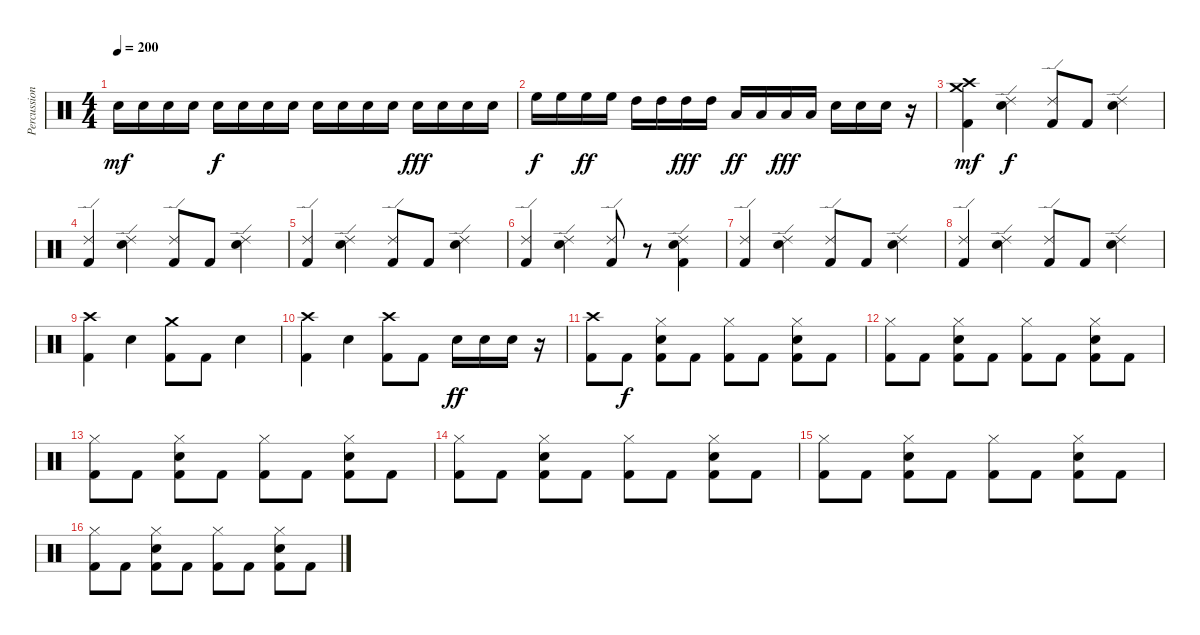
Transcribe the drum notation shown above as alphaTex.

\track ("Percussions 1" "Percussion") {instrument percussion}
\staff {score}
\articulation defaults
\ts (4 4)
\tempo 200
\clef neutral
\ks c "Snare (hit) 2".16{dy mf} "Snare (hit) 2".16 "Snare (hit) 2".16 "Snare (hit) 2".16 "Snare (hit) 2".16{dy f} "Snare (hit) 2".16 "Snare (hit) 2".16 "Snare (hit) 2".16 "Snare (hit) 2".16 "Snare (hit) 2".16 "Snare (hit) 2".16 "Snare (hit) 2".16 "Snare (hit) 2".16{dy fff} "Snare (hit) 2".16 "Snare (hit) 2".16 "Snare (hit) 2".16
|
"High Floor Tom (hit)".16{dy f} "High Floor Tom (hit)".16 "High Floor Tom (hit)".16{dy ff} "High Floor Tom (hit)".16 "High Tom (hit)".16 "High Tom (hit)".16 "High Tom (hit)".16{dy fff} "High Tom (hit)".16 "Low Tom (hit)".16{dy ff} "Low Tom (hit)".16 "Low Tom (hit)".16{dy fff} "Low Tom (hit)".16 "Snare (hit) 2".16 "Snare (hit) 2".16 "Snare (hit) 2".16 r.16 |
("Crash high (hit)" "Crash medium (hit)" "Kick (hit) 2").4{dy mf} ("Ride (edge) 2" "Snare (hit) 2").4{dy f} ("Ride (edge) 2" "Kick (hit) 2").8 "Kick (hit) 2".8 ("Ride (edge) 2" "Snare (hit) 2").4 |
("Ride (edge) 2" "Kick (hit) 2").4 ("Ride (edge) 2" "Snare (hit) 2").4 ("Ride (edge) 2" "Kick (hit) 2").8 "Kick (hit) 2".8 ("Ride (edge) 2" "Snare (hit) 2").4 |
("Ride (edge) 2" "Kick (hit) 2").4 ("Ride (edge) 2" "Snare (hit) 2").4 ("Ride (edge) 2" "Kick (hit) 2").8 "Kick (hit) 2".8 ("Ride (edge) 2" "Snare (hit) 2").4 |
("Ride (edge) 2" "Kick (hit) 2").4 ("Ride (edge) 2" "Snare (hit) 2").4 ("Ride (edge) 2" "Kick (hit) 2").8 r.8 ("Ride (edge) 2" "Snare (hit) 2" "Kick (hit) 2").4 |
("Ride (edge) 2" "Kick (hit) 2").4 ("Ride (edge) 2" "Snare (hit) 2").4 ("Ride (edge) 2" "Kick (hit) 2").8 "Kick (hit) 2".8 ("Ride (edge) 2" "Snare (hit) 2").4 |
("Ride (edge) 2" "Kick (hit) 2").4 ("Ride (edge) 2" "Snare (hit) 2").4 ("Ride (edge) 2" "Kick (hit) 2").8 "Kick (hit) 2".8 ("Ride (edge) 2" "Snare (hit) 2").4 |
("Crash high (hit)" "Kick (hit) 2").4 "Snare (hit) 2".4 ("Crash medium (hit)" "Kick (hit) 2").8 "Kick (hit) 2".8 "Snare (hit) 2".4 |
("Crash high (hit)" "Kick (hit) 2").4 "Snare (hit) 2".4 ("Crash high (hit)" "Kick (hit) 2").8 "Kick (hit) 2".8 "Snare (hit) 2".16{dy ff} "Snare (hit) 2".16 "Snare (hit) 2".16 r.16 |
("Crash high (hit)" "Kick (hit) 2").8 "Kick (hit) 2".8{dy f} ("Hi-Hat (closed)" "Snare (hit) 2" "Kick (hit) 2").8 "Kick (hit) 2".8 ("Hi-Hat (closed)" "Kick (hit) 2").8 "Kick (hit) 2".8 ("Hi-Hat (closed)" "Snare (hit) 2" "Kick (hit) 2").8 "Kick (hit) 2".8 |
("Hi-Hat (closed)" "Kick (hit) 2").8 "Kick (hit) 2".8 ("Hi-Hat (closed)" "Snare (hit) 2" "Kick (hit) 2").8 "Kick (hit) 2".8 ("Hi-Hat (closed)" "Kick (hit) 2").8 "Kick (hit) 2".8 ("Hi-Hat (closed)" "Snare (hit) 2" "Kick (hit) 2").8 "Kick (hit) 2".8 |
("Hi-Hat (closed)" "Kick (hit) 2").8 "Kick (hit) 2".8 ("Hi-Hat (closed)" "Snare (hit) 2" "Kick (hit) 2").8 "Kick (hit) 2".8 ("Hi-Hat (closed)" "Kick (hit) 2").8 "Kick (hit) 2".8 ("Hi-Hat (closed)" "Snare (hit) 2" "Kick (hit) 2").8 "Kick (hit) 2".8 |
("Hi-Hat (closed)" "Kick (hit) 2").8 "Kick (hit) 2".8 ("Hi-Hat (closed)" "Snare (hit) 2" "Kick (hit) 2").8 "Kick (hit) 2".8 ("Hi-Hat (closed)" "Kick (hit) 2").8 "Kick (hit) 2".8 ("Hi-Hat (closed)" "Snare (hit) 2" "Kick (hit) 2").8 "Kick (hit) 2".8 |
("Hi-Hat (closed)" "Kick (hit) 2").8 "Kick (hit) 2".8 ("Hi-Hat (closed)" "Snare (hit) 2" "Kick (hit) 2").8 "Kick (hit) 2".8 ("Hi-Hat (closed)" "Kick (hit) 2").8 "Kick (hit) 2".8 ("Hi-Hat (closed)" "Snare (hit) 2" "Kick (hit) 2").8 "Kick (hit) 2".8 |
("Hi-Hat (closed)" "Kick (hit) 2").8 "Kick (hit) 2".8 ("Hi-Hat (closed)" "Snare (hit) 2" "Kick (hit) 2").8 "Kick (hit) 2".8 ("Hi-Hat (closed)" "Kick (hit) 2").8 "Kick (hit) 2".8 ("Hi-Hat (closed)" "Snare (hit) 2" "Kick (hit) 2").8 "Kick (hit) 2".8
